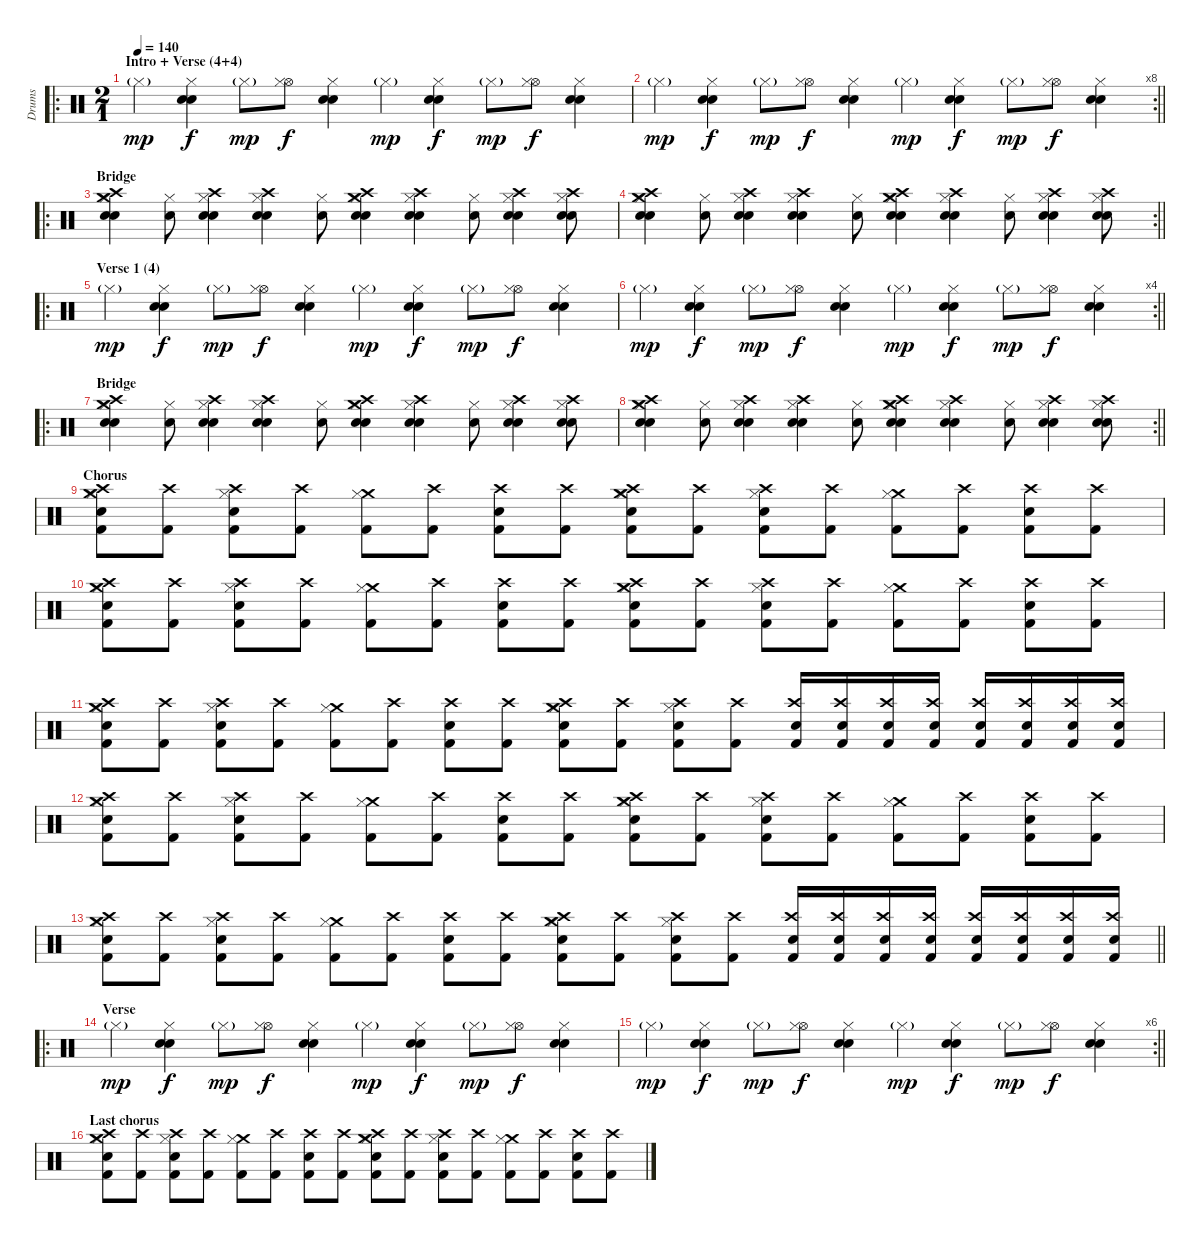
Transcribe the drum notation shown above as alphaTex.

\track ("Drums" "Drums") {instrument percussion}
\staff {score}
\articulation defaults
\ro
\ts (2 1)
\section ("" "Intro + Verse (4+4)")
\tempo 140
\clef neutral
\ks c "Hi-Hat (closed)"{g}.4{dy mp}
("Electric Snare (hit)" "Hi-Hat (closed)" "Snare (hit) 2").4{dy f} "Hi-Hat (closed)"{g}.8{dy mp} ("Hi-Hat (open)" "Hi-Hat (closed)").8{dy f} ("Electric Snare (hit)" "Hi-Hat (closed)" "Snare (hit) 2").4 "Hi-Hat (closed)"{g}.4{dy mp} ("Electric Snare (hit)" "Hi-Hat (closed)" "Snare (hit) 2").4{dy f} "Hi-Hat (closed)"{g}.8{dy mp} ("Hi-Hat (open)" "Hi-Hat (closed)").8{dy f} ("Electric Snare (hit)" "Hi-Hat (closed)" "Snare (hit) 2").4 |
\rc 8
\barLineRight lightlight "Hi-Hat (closed)"{g}.4{dy mp}
("Electric Snare (hit)" "Hi-Hat (closed)" "Snare (hit) 2").4{dy f} "Hi-Hat (closed)"{g}.8{dy mp} ("Hi-Hat (open)" "Hi-Hat (closed)").8{dy f} ("Electric Snare (hit)" "Hi-Hat (closed)" "Snare (hit) 2").4 "Hi-Hat (closed)"{g}.4{dy mp} ("Electric Snare (hit)" "Hi-Hat (closed)" "Snare (hit) 2").4{dy f} "Hi-Hat (closed)"{g}.8{dy mp} ("Hi-Hat (open)" "Hi-Hat (closed)").8{dy f} ("Electric Snare (hit)" "Hi-Hat (closed)" "Snare (hit) 2").4 |
\ro
\section ("" "Bridge")
("Crash high (hit)" "Crash medium (hit)" "Electric Snare (hit)" "Hi-Hat (closed)" "Snare (hit) 2").4 ("Hi-Hat (closed)" "Snare (hit) 2").8 ("Crash high (hit)" "Electric Snare (hit)" "Hi-Hat (closed)" "Snare (hit) 2").4 ("Crash high (hit)" "Electric Snare (hit)" "Hi-Hat (closed)" "Snare (hit) 2").4 ("Hi-Hat (closed)" "Snare (hit) 2").8 ("Crash high (hit)" "Crash medium (hit)" "Electric Snare (hit)" "Hi-Hat (closed)" "Snare (hit) 2").4 ("Crash high (hit)" "Electric Snare (hit)" "Hi-Hat (closed)" "Snare (hit) 2").4 ("Hi-Hat (closed)" "Snare (hit) 2").8 ("Crash high (hit)" "Electric Snare (hit)" "Hi-Hat (closed)" "Snare (hit) 2").4 ("Crash high (hit)" "Electric Snare (hit)" "Hi-Hat (closed)" "Snare (hit) 2").8 |
\rc 2
\barLineRight lightlight
("Crash high (hit)" "Crash medium (hit)" "Electric Snare (hit)" "Hi-Hat (closed)" "Snare (hit) 2").4 ("Hi-Hat (closed)" "Snare (hit) 2").8 ("Crash high (hit)" "Electric Snare (hit)" "Hi-Hat (closed)" "Snare (hit) 2").4 ("Crash high (hit)" "Electric Snare (hit)" "Hi-Hat (closed)" "Snare (hit) 2").4 ("Hi-Hat (closed)" "Snare (hit) 2").8 ("Crash high (hit)" "Crash medium (hit)" "Electric Snare (hit)" "Hi-Hat (closed)" "Snare (hit) 2").4 ("Crash high (hit)" "Electric Snare (hit)" "Hi-Hat (closed)" "Snare (hit) 2").4 ("Hi-Hat (closed)" "Snare (hit) 2").8 ("Crash high (hit)" "Electric Snare (hit)" "Hi-Hat (closed)" "Snare (hit) 2").4 ("Crash high (hit)" "Electric Snare (hit)" "Hi-Hat (closed)" "Snare (hit) 2").8 |
\ro
\section ("" "Verse 1 (4)")
"Hi-Hat (closed)"{g}.4{dy mp} ("Electric Snare (hit)" "Hi-Hat (closed)" "Snare (hit) 2").4{dy f} "Hi-Hat (closed)"{g}.8{dy mp} ("Hi-Hat (open)" "Hi-Hat (closed)").8{dy f} ("Electric Snare (hit)" "Hi-Hat (closed)" "Snare (hit) 2").4 "Hi-Hat (closed)"{g}.4{dy mp} ("Electric Snare (hit)" "Hi-Hat (closed)" "Snare (hit) 2").4{dy f} "Hi-Hat (closed)"{g}.8{dy mp} ("Hi-Hat (open)" "Hi-Hat (closed)").8{dy f} ("Electric Snare (hit)" "Hi-Hat (closed)" "Snare (hit) 2").4 |
\rc 4
\barLineRight lightlight "Hi-Hat (closed)"{g}.4{dy mp}
("Electric Snare (hit)" "Hi-Hat (closed)" "Snare (hit) 2").4{dy f} "Hi-Hat (closed)"{g}.8{dy mp} ("Hi-Hat (open)" "Hi-Hat (closed)").8{dy f} ("Electric Snare (hit)" "Hi-Hat (closed)" "Snare (hit) 2").4 "Hi-Hat (closed)"{g}.4{dy mp} ("Electric Snare (hit)" "Hi-Hat (closed)" "Snare (hit) 2").4{dy f} "Hi-Hat (closed)"{g}.8{dy mp} ("Hi-Hat (open)" "Hi-Hat (closed)").8{dy f} ("Electric Snare (hit)" "Hi-Hat (closed)" "Snare (hit) 2").4 |
\ro
\section ("" "Bridge")
("Crash high (hit)" "Crash medium (hit)" "Electric Snare (hit)" "Hi-Hat (closed)" "Snare (hit) 2").4 ("Hi-Hat (closed)" "Snare (hit) 2").8 ("Crash high (hit)" "Electric Snare (hit)" "Hi-Hat (closed)" "Snare (hit) 2").4 ("Crash high (hit)" "Electric Snare (hit)" "Hi-Hat (closed)" "Snare (hit) 2").4 ("Hi-Hat (closed)" "Snare (hit) 2").8 ("Crash high (hit)" "Crash medium (hit)" "Electric Snare (hit)" "Hi-Hat (closed)" "Snare (hit) 2").4 ("Crash high (hit)" "Electric Snare (hit)" "Hi-Hat (closed)" "Snare (hit) 2").4 ("Hi-Hat (closed)" "Snare (hit) 2").8 ("Crash high (hit)" "Electric Snare (hit)" "Hi-Hat (closed)" "Snare (hit) 2").4 ("Crash high (hit)" "Electric Snare (hit)" "Hi-Hat (closed)" "Snare (hit) 2").8 |
\rc 2
\barLineRight lightlight
("Crash high (hit)" "Crash medium (hit)" "Electric Snare (hit)" "Hi-Hat (closed)" "Snare (hit) 2").4 ("Hi-Hat (closed)" "Snare (hit) 2").8 ("Crash high (hit)" "Electric Snare (hit)" "Hi-Hat (closed)" "Snare (hit) 2").4 ("Crash high (hit)" "Electric Snare (hit)" "Hi-Hat (closed)" "Snare (hit) 2").4 ("Hi-Hat (closed)" "Snare (hit) 2").8 ("Crash high (hit)" "Crash medium (hit)" "Electric Snare (hit)" "Hi-Hat (closed)" "Snare (hit) 2").4 ("Crash high (hit)" "Electric Snare (hit)" "Hi-Hat (closed)" "Snare (hit) 2").4 ("Hi-Hat (closed)" "Snare (hit) 2").8 ("Crash high (hit)" "Electric Snare (hit)" "Hi-Hat (closed)" "Snare (hit) 2").4 ("Crash high (hit)" "Electric Snare (hit)" "Hi-Hat (closed)" "Snare (hit) 2").8 |
\section ("" "Chorus")
("Crash high (hit)" "Crash medium (hit)" "Kick (hit) 2" "Hi-Hat (closed)" "Snare (hit) 2").8 ("Crash high (hit)" "Kick (hit) 2").8 ("Crash high (hit)" "Kick (hit) 2" "Hi-Hat (closed)" "Snare (hit) 2").8 ("Crash high (hit)" "Kick (hit) 2").8 ("Crash medium (hit)" "Kick (hit) 2" "Hi-Hat (closed)").8 ("Crash high (hit)" "Kick (hit) 2").8 ("Crash high (hit)" "Kick (hit) 2" "Snare (hit) 2").8 ("Crash high (hit)" "Kick (hit) 2").8 ("Crash high (hit)" "Crash medium (hit)" "Kick (hit) 2" "Hi-Hat (closed)" "Snare (hit) 2").8 ("Crash high (hit)" "Kick (hit) 2").8 ("Crash high (hit)" "Kick (hit) 2" "Hi-Hat (closed)" "Snare (hit) 2").8 ("Crash high (hit)" "Kick (hit) 2").8 ("Crash medium (hit)" "Kick (hit) 2" "Hi-Hat (closed)").8 ("Crash high (hit)" "Kick (hit) 2").8 ("Crash high (hit)" "Kick (hit) 2" "Snare (hit) 2").8 ("Crash high (hit)" "Kick (hit) 2").8 |
("Crash high (hit)" "Crash medium (hit)" "Kick (hit) 2" "Hi-Hat (closed)" "Snare (hit) 2").8 ("Crash high (hit)" "Kick (hit) 2").8 ("Crash high (hit)" "Kick (hit) 2" "Hi-Hat (closed)" "Snare (hit) 2").8 ("Crash high (hit)" "Kick (hit) 2").8 ("Crash medium (hit)" "Kick (hit) 2" "Hi-Hat (closed)").8 ("Crash high (hit)" "Kick (hit) 2").8 ("Crash high (hit)" "Kick (hit) 2" "Snare (hit) 2").8 ("Crash high (hit)" "Kick (hit) 2").8 ("Crash high (hit)" "Crash medium (hit)" "Kick (hit) 2" "Hi-Hat (closed)" "Snare (hit) 2").8 ("Crash high (hit)" "Kick (hit) 2").8 ("Crash high (hit)" "Kick (hit) 2" "Hi-Hat (closed)" "Snare (hit) 2").8 ("Crash high (hit)" "Kick (hit) 2").8 ("Crash medium (hit)" "Kick (hit) 2" "Hi-Hat (closed)").8 ("Crash high (hit)" "Kick (hit) 2").8 ("Crash high (hit)" "Kick (hit) 2" "Snare (hit) 2").8 ("Crash high (hit)" "Kick (hit) 2").8 |
("Crash high (hit)" "Crash medium (hit)" "Kick (hit) 2" "Hi-Hat (closed)" "Snare (hit) 2").8 ("Crash high (hit)" "Kick (hit) 2").8 ("Crash high (hit)" "Kick (hit) 2" "Hi-Hat (closed)" "Snare (hit) 2").8 ("Crash high (hit)" "Kick (hit) 2").8 ("Crash medium (hit)" "Kick (hit) 2" "Hi-Hat (closed)").8 ("Crash high (hit)" "Kick (hit) 2").8 ("Crash high (hit)" "Kick (hit) 2" "Snare (hit) 2").8 ("Crash high (hit)" "Kick (hit) 2").8 ("Crash high (hit)" "Crash medium (hit)" "Kick (hit) 2" "Hi-Hat (closed)" "Snare (hit) 2").8 ("Crash high (hit)" "Kick (hit) 2").8 ("Crash high (hit)" "Kick (hit) 2" "Hi-Hat (closed)" "Snare (hit) 2").8 ("Crash high (hit)" "Kick (hit) 2").8 ("Crash high (hit)" "Snare (hit) 2" "Kick (hit) 2").16 ("Crash high (hit)" "Snare (hit) 2" "Kick (hit) 2").16 ("Crash high (hit)" "Snare (hit) 2" "Kick (hit) 2").16 ("Crash high (hit)" "Snare (hit) 2" "Kick (hit) 2").16 ("Crash high (hit)" "Snare (hit) 2" "Kick (hit) 2").16 ("Crash high (hit)" "Snare (hit) 2" "Kick (hit) 2").16 ("Crash high (hit)" "Snare (hit) 2" "Kick (hit) 2").16 ("Crash high (hit)" "Snare (hit) 2" "Kick (hit) 2").16 |
("Crash high (hit)" "Crash medium (hit)" "Kick (hit) 2" "Hi-Hat (closed)" "Snare (hit) 2").8 ("Crash high (hit)" "Kick (hit) 2").8 ("Crash high (hit)" "Kick (hit) 2" "Hi-Hat (closed)" "Snare (hit) 2").8 ("Crash high (hit)" "Kick (hit) 2").8 ("Crash medium (hit)" "Kick (hit) 2" "Hi-Hat (closed)").8 ("Crash high (hit)" "Kick (hit) 2").8 ("Crash high (hit)" "Kick (hit) 2" "Snare (hit) 2").8 ("Crash high (hit)" "Kick (hit) 2").8 ("Crash high (hit)" "Crash medium (hit)" "Kick (hit) 2" "Hi-Hat (closed)" "Snare (hit) 2").8 ("Crash high (hit)" "Kick (hit) 2").8 ("Crash high (hit)" "Kick (hit) 2" "Hi-Hat (closed)" "Snare (hit) 2").8 ("Crash high (hit)" "Kick (hit) 2").8 ("Crash medium (hit)" "Kick (hit) 2" "Hi-Hat (closed)").8 ("Crash high (hit)" "Kick (hit) 2").8 ("Crash high (hit)" "Kick (hit) 2" "Snare (hit) 2").8 ("Crash high (hit)" "Kick (hit) 2").8 |
\barLineRight lightlight
("Crash high (hit)" "Crash medium (hit)" "Kick (hit) 2" "Hi-Hat (closed)" "Snare (hit) 2").8 ("Crash high (hit)" "Kick (hit) 2").8 ("Crash high (hit)" "Kick (hit) 2" "Hi-Hat (closed)" "Snare (hit) 2").8 ("Crash high (hit)" "Kick (hit) 2").8 ("Crash medium (hit)" "Kick (hit) 2" "Hi-Hat (closed)").8 ("Crash high (hit)" "Kick (hit) 2").8 ("Crash high (hit)" "Kick (hit) 2" "Snare (hit) 2").8 ("Crash high (hit)" "Kick (hit) 2").8 ("Crash high (hit)" "Crash medium (hit)" "Kick (hit) 2" "Hi-Hat (closed)" "Snare (hit) 2").8 ("Crash high (hit)" "Kick (hit) 2").8 ("Crash high (hit)" "Kick (hit) 2" "Hi-Hat (closed)" "Snare (hit) 2").8 ("Crash high (hit)" "Kick (hit) 2").8 ("Crash high (hit)" "Snare (hit) 2" "Kick (hit) 2").16 ("Crash high (hit)" "Snare (hit) 2" "Kick (hit) 2").16 ("Crash high (hit)" "Snare (hit) 2" "Kick (hit) 2").16 ("Crash high (hit)" "Snare (hit) 2" "Kick (hit) 2").16 ("Crash high (hit)" "Snare (hit) 2" "Kick (hit) 2").16 ("Crash high (hit)" "Snare (hit) 2" "Kick (hit) 2").16 ("Crash high (hit)" "Snare (hit) 2" "Kick (hit) 2").16 ("Crash high (hit)" "Snare (hit) 2" "Kick (hit) 2").16 |
\ro
\section ("" "Verse")
"Hi-Hat (closed)"{g}.4{dy mp} ("Electric Snare (hit)" "Hi-Hat (closed)" "Snare (hit) 2").4{dy f} "Hi-Hat (closed)"{g}.8{dy mp} ("Hi-Hat (open)" "Hi-Hat (closed)").8{dy f} ("Electric Snare (hit)" "Hi-Hat (closed)" "Snare (hit) 2").4 "Hi-Hat (closed)"{g}.4{dy mp} ("Electric Snare (hit)" "Hi-Hat (closed)" "Snare (hit) 2").4{dy f} "Hi-Hat (closed)"{g}.8{dy mp} ("Hi-Hat (open)" "Hi-Hat (closed)").8{dy f} ("Electric Snare (hit)" "Hi-Hat (closed)" "Snare (hit) 2").4 |
\rc 6
\barLineRight lightlight "Hi-Hat (closed)"{g}.4{dy mp}
("Electric Snare (hit)" "Hi-Hat (closed)" "Snare (hit) 2").4{dy f} "Hi-Hat (closed)"{g}.8{dy mp} ("Hi-Hat (open)" "Hi-Hat (closed)").8{dy f} ("Electric Snare (hit)" "Hi-Hat (closed)" "Snare (hit) 2").4 "Hi-Hat (closed)"{g}.4{dy mp} ("Electric Snare (hit)" "Hi-Hat (closed)" "Snare (hit) 2").4{dy f} "Hi-Hat (closed)"{g}.8{dy mp} ("Hi-Hat (open)" "Hi-Hat (closed)").8{dy f} ("Electric Snare (hit)" "Hi-Hat (closed)" "Snare (hit) 2").4 |
\section ("" "Last chorus")
("Crash high (hit)" "Crash medium (hit)" "Kick (hit) 2" "Hi-Hat (closed)" "Snare (hit) 2").8 ("Crash high (hit)" "Kick (hit) 2").8 ("Crash high (hit)" "Kick (hit) 2" "Hi-Hat (closed)" "Snare (hit) 2").8 ("Crash high (hit)" "Kick (hit) 2").8 ("Crash medium (hit)" "Kick (hit) 2" "Hi-Hat (closed)").8 ("Crash high (hit)" "Kick (hit) 2").8 ("Crash high (hit)" "Kick (hit) 2" "Snare (hit) 2").8 ("Crash high (hit)" "Kick (hit) 2").8 ("Crash high (hit)" "Crash medium (hit)" "Kick (hit) 2" "Hi-Hat (closed)" "Snare (hit) 2").8 ("Crash high (hit)" "Kick (hit) 2").8 ("Crash high (hit)" "Kick (hit) 2" "Hi-Hat (closed)" "Snare (hit) 2").8 ("Crash high (hit)" "Kick (hit) 2").8 ("Crash medium (hit)" "Kick (hit) 2" "Hi-Hat (closed)").8 ("Crash high (hit)" "Kick (hit) 2").8 ("Crash high (hit)" "Kick (hit) 2" "Snare (hit) 2").8 ("Crash high (hit)" "Kick (hit) 2").8
